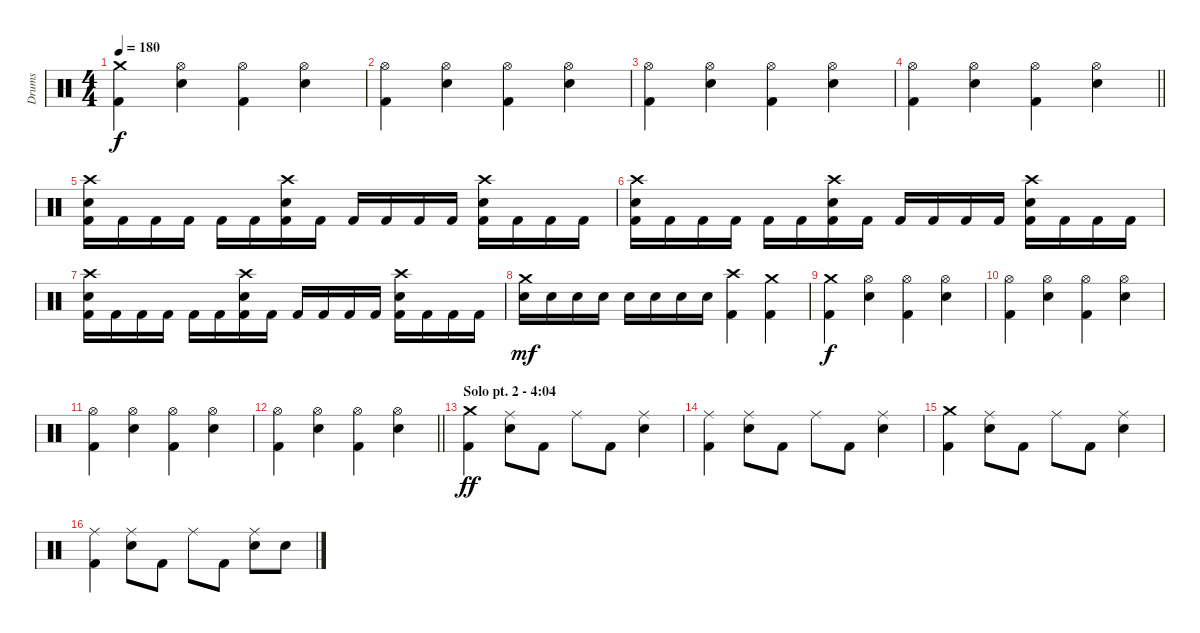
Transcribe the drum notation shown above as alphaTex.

\track ("Drums" "Drums") {instrument percussion}
\staff {score}
\articulation defaults
\ts (4 4)
\tempo 180
\clef neutral
\ks c
("Crash medium (hit)" "Kick (hit) 2").4{dy f} ("Hi-Hat (open)" "Electric Snare (hit)").4 ("Hi-Hat (open)" "Kick (hit) 2").4 ("Hi-Hat (open)" "Electric Snare (hit)").4 |
("Hi-Hat (open)" "Kick (hit) 2").4 ("Hi-Hat (open)" "Electric Snare (hit)").4 ("Hi-Hat (open)" "Kick (hit) 2").4 ("Hi-Hat (open)" "Electric Snare (hit)").4 |
("Hi-Hat (open)" "Kick (hit) 2").4 ("Hi-Hat (open)" "Electric Snare (hit)").4 ("Hi-Hat (open)" "Kick (hit) 2").4 ("Hi-Hat (open)" "Electric Snare (hit)").4 |
\barLineRight lightlight
("Hi-Hat (open)" "Kick (hit) 2").4 ("Hi-Hat (open)" "Electric Snare (hit)").4 ("Hi-Hat (open)" "Kick (hit) 2").4 ("Hi-Hat (open)" "Electric Snare (hit)").4 |
("Crash high (hit)" "Electric Snare (hit)" "Kick (hit) 2").16 "Kick (hit) 2".16 "Kick (hit) 2".16 "Kick (hit) 2".16 "Kick (hit) 2".16 "Kick (hit) 2".16 ("Crash high (hit)" "Electric Snare (hit)" "Kick (hit) 2").16 "Kick (hit) 2".16 "Kick (hit) 2".16 "Kick (hit) 2".16 "Kick (hit) 2".16 "Kick (hit) 2".16 ("Crash high (hit)" "Electric Snare (hit)" "Kick (hit) 2").16 "Kick (hit) 2".16 "Kick (hit) 2".16 "Kick (hit) 2".16 |
("Crash high (hit)" "Electric Snare (hit)" "Kick (hit) 2").16 "Kick (hit) 2".16 "Kick (hit) 2".16 "Kick (hit) 2".16 "Kick (hit) 2".16 "Kick (hit) 2".16 ("Crash high (hit)" "Electric Snare (hit)" "Kick (hit) 2").16 "Kick (hit) 2".16 "Kick (hit) 2".16 "Kick (hit) 2".16 "Kick (hit) 2".16 "Kick (hit) 2".16 ("Crash high (hit)" "Electric Snare (hit)" "Kick (hit) 2").16 "Kick (hit) 2".16 "Kick (hit) 2".16 "Kick (hit) 2".16 |
("Crash high (hit)" "Electric Snare (hit)" "Kick (hit) 2").16 "Kick (hit) 2".16 "Kick (hit) 2".16 "Kick (hit) 2".16 "Kick (hit) 2".16 "Kick (hit) 2".16 ("Crash high (hit)" "Electric Snare (hit)" "Kick (hit) 2").16 "Kick (hit) 2".16 "Kick (hit) 2".16 "Kick (hit) 2".16 "Kick (hit) 2".16 "Kick (hit) 2".16 ("Crash high (hit)" "Electric Snare (hit)" "Kick (hit) 2").16 "Kick (hit) 2".16 "Kick (hit) 2".16 "Kick (hit) 2".16 |
("Crash medium (hit)" "Electric Snare (hit)").16{dy mf} "Electric Snare (hit)".16 "Electric Snare (hit)".16 "Electric Snare (hit)".16 "Electric Snare (hit)".16 "Electric Snare (hit)".16 "Electric Snare (hit)".16 "Electric Snare (hit)".16 ("Crash high (hit)" "Kick (hit) 2").4 ("Crash medium (hit)" "Kick (hit) 2").4 |
("Crash medium (hit)" "Kick (hit) 2").4{dy f} ("Hi-Hat (open)" "Electric Snare (hit)").4 ("Hi-Hat (open)" "Kick (hit) 2").4 ("Hi-Hat (open)" "Electric Snare (hit)").4 |
("Hi-Hat (open)" "Kick (hit) 2").4 ("Hi-Hat (open)" "Electric Snare (hit)").4 ("Hi-Hat (open)" "Kick (hit) 2").4 ("Hi-Hat (open)" "Electric Snare (hit)").4 |
("Hi-Hat (open)" "Kick (hit) 2").4 ("Hi-Hat (open)" "Electric Snare (hit)").4 ("Hi-Hat (open)" "Kick (hit) 2").4 ("Hi-Hat (open)" "Electric Snare (hit)").4 |
\barLineRight lightlight
("Hi-Hat (open)" "Kick (hit) 2").4 ("Hi-Hat (open)" "Electric Snare (hit)").4 ("Hi-Hat (open)" "Kick (hit) 2").4 ("Hi-Hat (open)" "Electric Snare (hit)").4 |
\section ("" "Solo pt. 2 - 4:04")
("Crash medium (hit)" "Kick (hit) 2").4{dy ff} ("Ride (middle)" "Electric Snare (hit)").8 "Kick (hit) 2".8 "Ride (middle)".8 "Kick (hit) 2".8 ("Ride (middle)" "Electric Snare (hit)").4 |
("Ride (middle)" "Kick (hit) 2").4 ("Ride (middle)" "Electric Snare (hit)").8 "Kick (hit) 2".8 "Ride (middle)".8 "Kick (hit) 2".8 ("Ride (middle)" "Electric Snare (hit)").4 |
("Crash medium (hit)" "Kick (hit) 2").4 ("Ride (middle)" "Electric Snare (hit)").8 "Kick (hit) 2".8 "Ride (middle)".8 "Kick (hit) 2".8 ("Ride (middle)" "Electric Snare (hit)").4 |
("Ride (middle)" "Kick (hit) 2").4 ("Ride (middle)" "Electric Snare (hit)").8 "Kick (hit) 2".8 "Ride (middle)".8 "Kick (hit) 2".8 ("Ride (middle)" "Electric Snare (hit)").8 "Electric Snare (hit)".8
